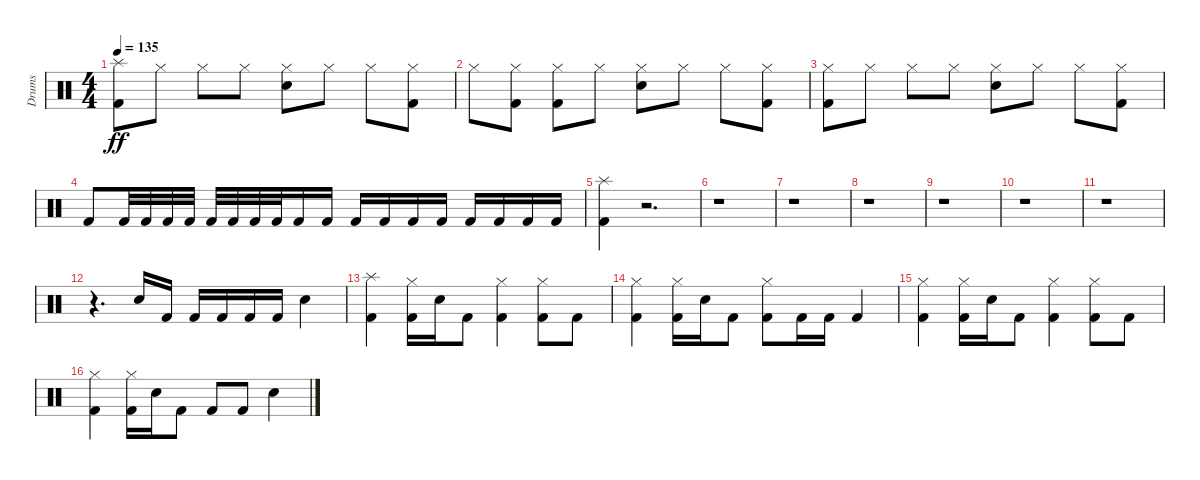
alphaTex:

\track ("Drums" "Drums") {instrument percussion}
\staff {score}
\articulation defaults
\ts (4 4)
\tempo 135
\clef neutral
\ks c
("Kick (hit) 2" "Splash (hit)").8{dy ff} "Hi-Hat (closed)".8 "Hi-Hat (closed)".8 "Hi-Hat (closed)".8 ("Electric Snare (hit)" "Hi-Hat (closed)").8 "Hi-Hat (closed)".8 "Hi-Hat (closed)".8 ("Kick (hit) 2" "Hi-Hat (closed)").8 |
"Hi-Hat (closed)".8 ("Kick (hit) 2" "Hi-Hat (closed)").8 ("Kick (hit) 2" "Hi-Hat (closed)").8 "Hi-Hat (closed)".8 ("Electric Snare (hit)" "Hi-Hat (closed)").8 "Hi-Hat (closed)".8 "Hi-Hat (closed)".8 ("Kick (hit) 2" "Hi-Hat (closed)").8 |
("Kick (hit) 2" "Hi-Hat (closed)").8 "Hi-Hat (closed)".8 "Hi-Hat (closed)".8 "Hi-Hat (closed)".8 ("Electric Snare (hit)" "Hi-Hat (closed)").8 "Hi-Hat (closed)".8 "Hi-Hat (closed)".8 ("Kick (hit) 2" "Hi-Hat (closed)").8 |
"Kick (hit) 2".8 "Kick (hit) 2".32 "Kick (hit) 2".32 "Kick (hit) 2".32 "Kick (hit) 2".32 "Kick (hit) 2".32 "Kick (hit) 2".32 "Kick (hit) 2".32 "Kick (hit) 2".32 "Kick (hit) 2".16 "Kick (hit) 2".16 "Kick (hit) 2".16 "Kick (hit) 2".16 "Kick (hit) 2".16 "Kick (hit) 2".16 "Kick (hit) 2".16 "Kick (hit) 2".16 "Kick (hit) 2".16 "Kick (hit) 2".16 |
("Kick (hit) 2" "Splash (hit)").4 r.2{d} |
r.1 |
r.1 |
r.1 |
r.1 |
r.1 |
r.1 |
r.4{d} "Electric Snare (hit)".16 "Kick (hit) 2".16 "Kick (hit) 2".16 "Kick (hit) 2".16 "Kick (hit) 2".16 "Kick (hit) 2".16 "Electric Snare (hit)".4 |
("Kick (hit) 2" "Splash (hit)").4 ("Kick (hit) 2" "Hi-Hat (closed)").16 "Electric Snare (hit)".16 "Kick (hit) 2".8 ("Kick (hit) 2" "Hi-Hat (closed)").4 ("Kick (hit) 2" "Hi-Hat (closed)").8 "Kick (hit) 2".8 |
("Kick (hit) 2" "Hi-Hat (closed)").4 ("Kick (hit) 2" "Hi-Hat (closed)").16 "Electric Snare (hit)".16 "Kick (hit) 2".8 ("Kick (hit) 2" "Hi-Hat (closed)").8 "Kick (hit) 2".16 "Kick (hit) 2".16 "Kick (hit) 2".4 |
("Kick (hit) 2" "Hi-Hat (closed)").4 ("Kick (hit) 2" "Hi-Hat (closed)").16 "Electric Snare (hit)".16 "Kick (hit) 2".8 ("Kick (hit) 2" "Hi-Hat (closed)").4 ("Kick (hit) 2" "Hi-Hat (closed)").8 "Kick (hit) 2".8 |
("Kick (hit) 2" "Hi-Hat (closed)").4 ("Kick (hit) 2" "Hi-Hat (closed)").16 "Electric Snare (hit)".16 "Kick (hit) 2".8 "Kick (hit) 2".8 "Kick (hit) 2".8 "Electric Snare (hit)".4
